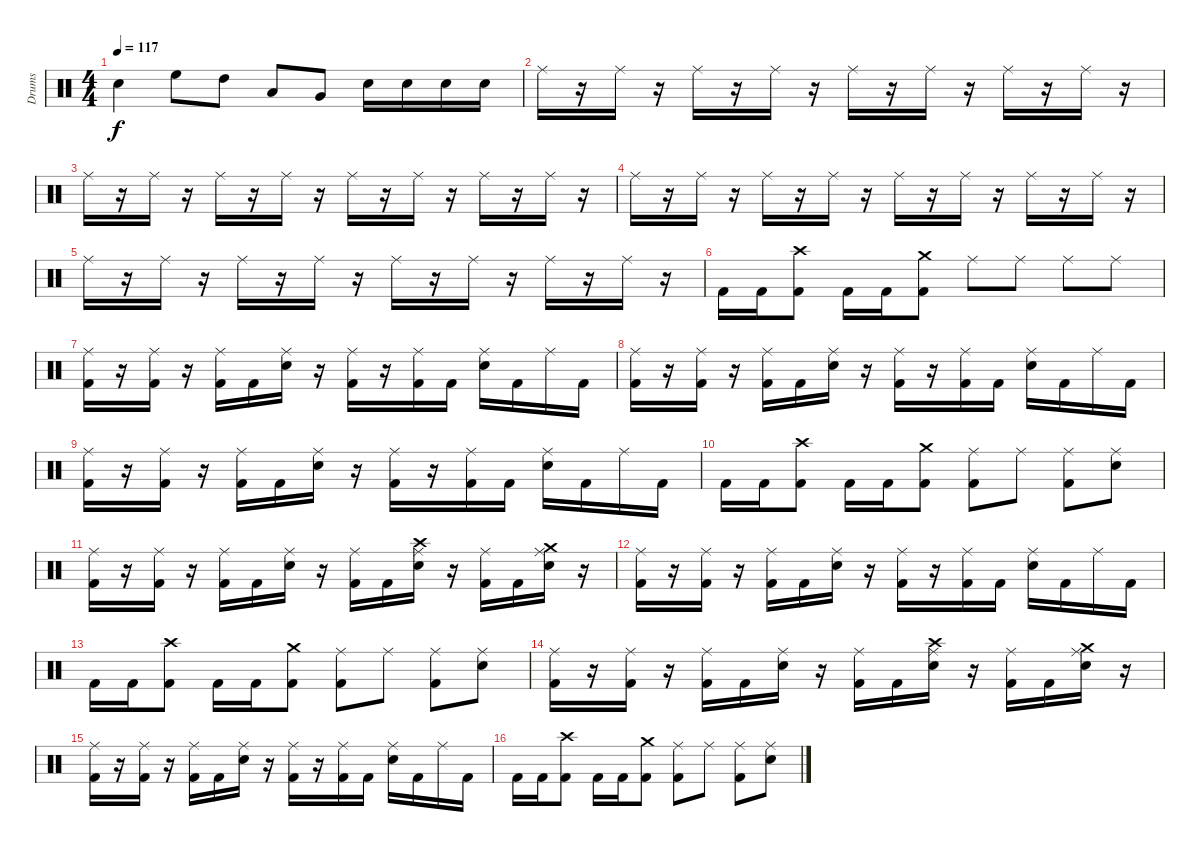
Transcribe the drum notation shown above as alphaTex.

\track ("Drums" "Drums") {instrument percussion}
\staff {score}
\articulation defaults
\ts (4 4)
\tempo 117
\clef neutral
\ks c "Snare (hit) 2".4{dy f} "High Floor Tom (hit)".8 "High Tom (hit)".8 "Low Tom (hit)".8 "Very Low Tom (hit)".8 "Snare (hit) 2".16 "Snare (hit) 2".16 "Snare (hit) 2".16 "Snare (hit) 2".16
|
"Ride (middle)".16 r.16 "Ride (middle)".16 r.16 "Ride (middle)".16 r.16 "Ride (middle)".16 r.16 "Ride (middle)".16 r.16 "Ride (middle)".16 r.16 "Ride (middle)".16 r.16 "Ride (middle)".16 r.16 |
"Ride (middle)".16 r.16 "Ride (middle)".16 r.16 "Ride (middle)".16 r.16 "Ride (middle)".16 r.16 "Ride (middle)".16 r.16 "Ride (middle)".16 r.16 "Ride (middle)".16 r.16 "Ride (middle)".16 r.16 |
"Ride (middle)".16 r.16 "Ride (middle)".16 r.16 "Ride (middle)".16 r.16 "Ride (middle)".16 r.16 "Ride (middle)".16 r.16 "Ride (middle)".16 r.16 "Ride (middle)".16 r.16 "Ride (middle)".16 r.16 |
"Ride (middle)".16 r.16 "Ride (middle)".16 r.16 "Ride (middle)".16 r.16 "Ride (middle)".16 r.16 "Ride (middle)".16 r.16 "Ride (middle)".16 r.16 "Ride (middle)".16 r.16 "Ride (middle)".16 r.16 |
"Kick (hit) 2".16 "Kick (hit) 2".16 ("Crash high (hit)" "Kick (hit) 2").8 "Kick (hit) 2".16 "Kick (hit) 2".16 ("Crash medium (hit)" "Kick (hit) 2").8 "Ride (middle)".8 "Ride (middle)".8 "Ride (middle)".8 "Ride (middle)".8 |
("Ride (middle)" "Kick (hit) 2").16 r.16 ("Ride (middle)" "Kick (hit) 2").16 r.16 ("Ride (middle)" "Kick (hit) 2").16 "Kick (hit) 2".16 ("Ride (middle)" "Electric Snare (hit)").16 r.16 ("Ride (middle)" "Kick (hit) 2").16 r.16 ("Ride (middle)" "Kick (hit) 2").16 "Kick (hit) 2".16 ("Ride (middle)" "Electric Snare (hit)").16 "Kick (hit) 2".16 "Ride (middle)".16 "Kick (hit) 2".16 |
("Ride (middle)" "Kick (hit) 2").16 r.16 ("Ride (middle)" "Kick (hit) 2").16 r.16 ("Ride (middle)" "Kick (hit) 2").16 "Kick (hit) 2".16 ("Ride (middle)" "Electric Snare (hit)").16 r.16 ("Ride (middle)" "Kick (hit) 2").16 r.16 ("Ride (middle)" "Kick (hit) 2").16 "Kick (hit) 2".16 ("Ride (middle)" "Electric Snare (hit)").16 "Kick (hit) 2".16 "Ride (middle)".16 "Kick (hit) 2".16 |
("Ride (middle)" "Kick (hit) 2").16 r.16 ("Ride (middle)" "Kick (hit) 2").16 r.16 ("Ride (middle)" "Kick (hit) 2").16 "Kick (hit) 2".16 ("Ride (middle)" "Electric Snare (hit)").16 r.16 ("Ride (middle)" "Kick (hit) 2").16 r.16 ("Ride (middle)" "Kick (hit) 2").16 "Kick (hit) 2".16 ("Ride (middle)" "Electric Snare (hit)").16 "Kick (hit) 2".16 "Ride (middle)".16 "Kick (hit) 2".16 |
"Kick (hit) 2".16 "Kick (hit) 2".16 ("Crash high (hit)" "Kick (hit) 2").8 "Kick (hit) 2".16 "Kick (hit) 2".16 ("Crash medium (hit)" "Kick (hit) 2").8 ("Ride (middle)" "Kick (hit) 2").8 "Ride (middle)".8 ("Ride (middle)" "Kick (hit) 2").8 ("Ride (middle)" "Electric Snare (hit)").8 |
("Ride (middle)" "Kick (hit) 2").16 r.16 ("Ride (middle)" "Kick (hit) 2").16 r.16 ("Ride (middle)" "Kick (hit) 2").16 "Kick (hit) 2".16 ("Ride (middle)" "Electric Snare (hit)").16 r.16 ("Ride (middle)" "Kick (hit) 2").16 "Kick (hit) 2".16 ("Ride (middle)" "Crash high (hit)" "Electric Snare (hit)").16 r.16 ("Ride (middle)" "Kick (hit) 2").16 "Kick (hit) 2".16 ("Ride (middle)" "Crash medium (hit)" "Electric Snare (hit)").16 r.16 |
("Ride (middle)" "Kick (hit) 2").16 r.16 ("Ride (middle)" "Kick (hit) 2").16 r.16 ("Ride (middle)" "Kick (hit) 2").16 "Kick (hit) 2".16 ("Ride (middle)" "Electric Snare (hit)").16 r.16 ("Ride (middle)" "Kick (hit) 2").16 r.16 ("Ride (middle)" "Kick (hit) 2").16 "Kick (hit) 2".16 ("Ride (middle)" "Electric Snare (hit)").16 "Kick (hit) 2".16 "Ride (middle)".16 "Kick (hit) 2".16 |
"Kick (hit) 2".16 "Kick (hit) 2".16 ("Crash high (hit)" "Kick (hit) 2").8 "Kick (hit) 2".16 "Kick (hit) 2".16 ("Crash medium (hit)" "Kick (hit) 2").8 ("Ride (middle)" "Kick (hit) 2").8 "Ride (middle)".8 ("Ride (middle)" "Kick (hit) 2").8 ("Ride (middle)" "Electric Snare (hit)").8 |
("Ride (middle)" "Kick (hit) 2").16 r.16 ("Ride (middle)" "Kick (hit) 2").16 r.16 ("Ride (middle)" "Kick (hit) 2").16 "Kick (hit) 2".16 ("Ride (middle)" "Electric Snare (hit)").16 r.16 ("Ride (middle)" "Kick (hit) 2").16 "Kick (hit) 2".16 ("Ride (middle)" "Crash high (hit)" "Electric Snare (hit)").16 r.16 ("Ride (middle)" "Kick (hit) 2").16 "Kick (hit) 2".16 ("Ride (middle)" "Crash medium (hit)" "Electric Snare (hit)").16 r.16 |
("Ride (middle)" "Kick (hit) 2").16 r.16 ("Ride (middle)" "Kick (hit) 2").16 r.16 ("Ride (middle)" "Kick (hit) 2").16 "Kick (hit) 2".16 ("Ride (middle)" "Electric Snare (hit)").16 r.16 ("Ride (middle)" "Kick (hit) 2").16 r.16 ("Ride (middle)" "Kick (hit) 2").16 "Kick (hit) 2".16 ("Ride (middle)" "Electric Snare (hit)").16 "Kick (hit) 2".16 "Ride (middle)".16 "Kick (hit) 2".16 |
"Kick (hit) 2".16 "Kick (hit) 2".16 ("Crash high (hit)" "Kick (hit) 2").8 "Kick (hit) 2".16 "Kick (hit) 2".16 ("Crash medium (hit)" "Kick (hit) 2").8 ("Ride (middle)" "Kick (hit) 2").8 "Ride (middle)".8 ("Ride (middle)" "Kick (hit) 2").8 ("Ride (middle)" "Electric Snare (hit)").8
